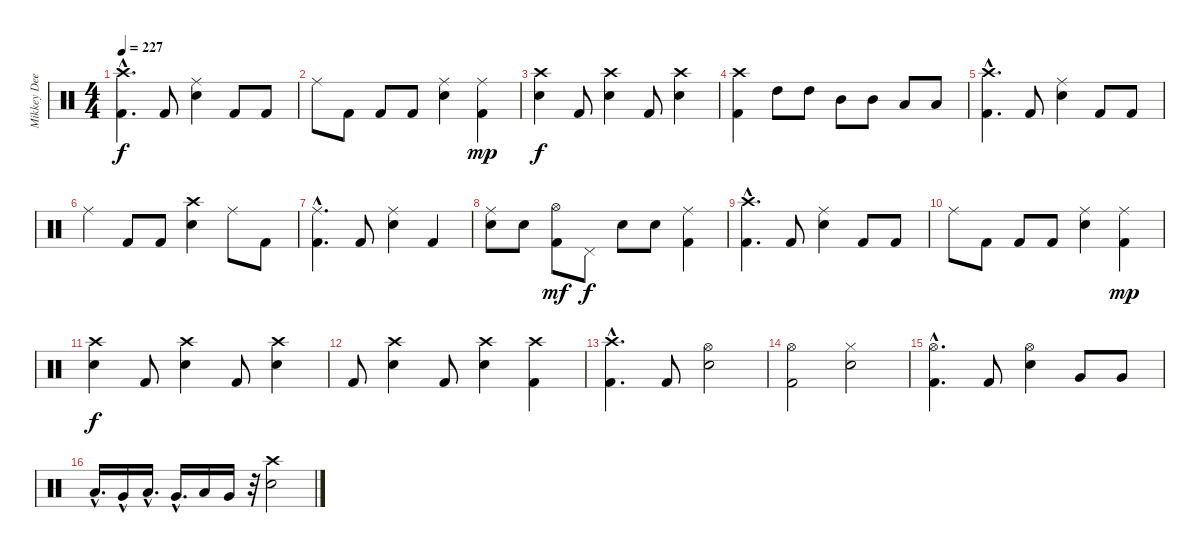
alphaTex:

\track ("Mikkey Dee" "Mikkey Dee") {instrument percussion}
\staff {score}
\articulation defaults
\ts (4 4)
\tempo 227
\clef neutral
\ks c
("Kick (hit) 2"{hac} "Crash high (hit)").4{d dy f} "Kick (hit) 2".8 ("Ride (middle)" "Electric Snare (hit)").4 "Kick (hit) 2".8 "Kick (hit) 2".8 |
"Ride (middle)".8 "Kick (hit) 2".8 "Kick (hit) 2".8 "Kick (hit) 2".8 ("Ride (middle)" "Electric Snare (hit)").4 ("Ride (middle)" "Kick (hit) 2").4{dy mp} |
("Crash high (hit)" "Electric Snare (hit)").4{dy f} "Kick (hit) 2".8 ("Crash high (hit)" "Electric Snare (hit)").4 "Kick (hit) 2".8 ("Crash high (hit)" "Electric Snare (hit)").4 |
("Crash high (hit)" "Kick (hit) 2").4 "High Tom (hit)".8 "High Tom (hit)".8 "Mid Tom (hit)".8 "Mid Tom (hit)".8 "Low Tom (hit)".8 "Low Tom (hit)".8 |
("Kick (hit) 2"{hac} "Crash high (hit)").4{d} "Kick (hit) 2".8 ("Electric Snare (hit)" "Ride (middle)").4 "Kick (hit) 2".8 "Kick (hit) 2".8 |
"Ride (middle)".4 "Kick (hit) 2".8 "Kick (hit) 2".8 ("Crash high (hit)" "Electric Snare (hit)").4 "Ride (middle)".8 "Kick (hit) 2".8 |
("Kick (hit) 2"{hac} "Ride (middle)").4{d} "Kick (hit) 2".8 ("Ride (middle)" "Electric Snare (hit)").4 "Kick (hit) 2".4 |
("Ride (middle)" "Electric Snare (hit)").8 "Electric Snare (hit)".8 ("Hi-Hat (open)" "Kick (hit) 2").8{dy mf} "Pedal Hi-Hat (hit)".8{dy f} "Electric Snare (hit)".8 "Electric Snare (hit)".8 ("Ride (middle)" "Kick (hit) 2").4 |
("Crash high (hit)" "Kick (hit) 2"{hac}).4{d} "Kick (hit) 2".8 ("Electric Snare (hit)" "Ride (middle)").4 "Kick (hit) 2".8 "Kick (hit) 2".8 |
"Ride (middle)".8 "Kick (hit) 2".8 "Kick (hit) 2".8 "Kick (hit) 2".8 ("Electric Snare (hit)" "Ride (middle)").4 ("Ride (middle)" "Kick (hit) 2").4{dy mp} |
("Crash high (hit)" "Electric Snare (hit)").4{dy f} "Kick (hit) 2".8 ("Electric Snare (hit)" "Crash high (hit)").4 "Kick (hit) 2".8 ("Electric Snare (hit)" "Crash high (hit)").4 |
"Kick (hit) 2".8 ("Crash high (hit)" "Electric Snare (hit)").4 "Kick (hit) 2".8 ("Electric Snare (hit)" "Crash high (hit)").4 ("Crash high (hit)" "Kick (hit) 2").4 |
("Crash high (hit)" "Kick (hit) 2"{hac}).4{d} "Kick (hit) 2".8 ("Snare (hit) 2" "Hi-Hat (open)").2 |
("Hi-Hat (open)" "Kick (hit) 2").2 ("Hi-Hat (closed)" "Electric Snare (hit)").2 |
("Kick (hit) 2"{hac} "Hi-Hat (open)").4{d} "Kick (hit) 2".8 ("Hi-Hat (open)" "Snare (hit) 2").4 "Very Low Tom (hit)".8 "Very Low Tom (hit)".8 |
"Low Tom (hit)"{hac}.16{d} "Very Low Tom (hit)"{hac}.16 "Low Tom (hit)"{hac}.16{d} "Very Low Tom (hit)"{hac}.16{d} "Low Tom (hit)".16 "Very Low Tom (hit)".16 r.32 ("Electric Snare (hit)" "Crash high (hit)").2
